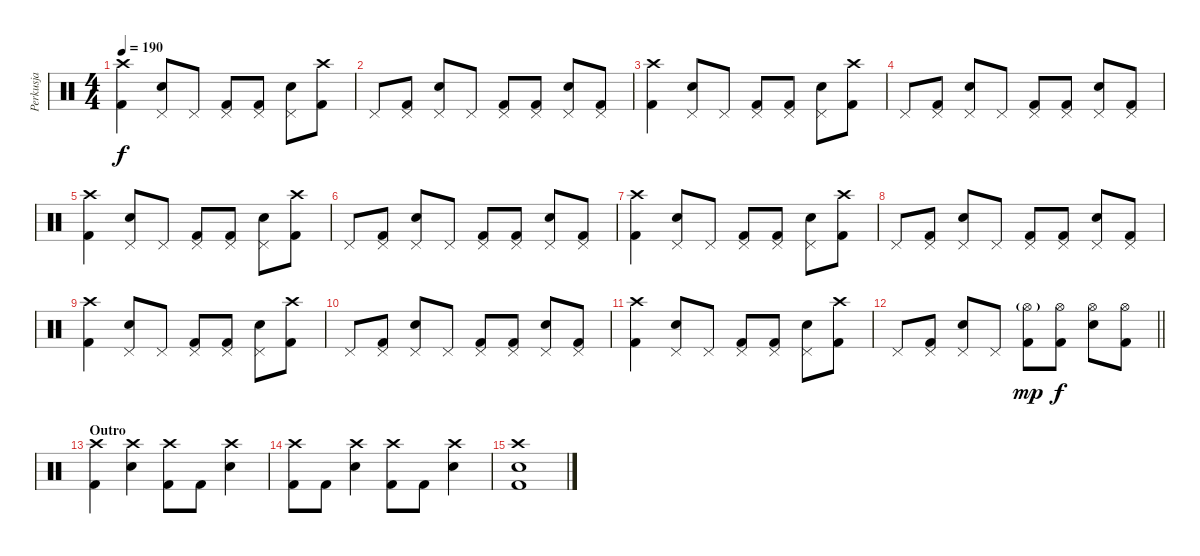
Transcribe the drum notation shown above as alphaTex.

\track ("Perkusja" "Perkusja") {instrument percussion}
\staff {score}
\articulation defaults
\ts (4 4)
\tempo 190
\clef neutral
\ks c
("Crash high (hit)" "Kick (hit) 2").4{dy f} ("Pedal Hi-Hat (hit)" "Electric Snare (hit)").8 "Pedal Hi-Hat (hit)".8 ("Pedal Hi-Hat (hit)" "Kick (hit) 2").8 ("Pedal Hi-Hat (hit)" "Kick (hit) 2").8 ("Pedal Hi-Hat (hit)" "Electric Snare (hit)").8 ("Crash high (hit)" "Kick (hit) 2").8 |
"Pedal Hi-Hat (hit)".8 ("Pedal Hi-Hat (hit)" "Kick (hit) 2").8 ("Pedal Hi-Hat (hit)" "Electric Snare (hit)").8 "Pedal Hi-Hat (hit)".8 ("Pedal Hi-Hat (hit)" "Kick (hit) 2").8 ("Pedal Hi-Hat (hit)" "Kick (hit) 2").8 ("Pedal Hi-Hat (hit)" "Electric Snare (hit)").8 ("Pedal Hi-Hat (hit)" "Kick (hit) 2").8 |
("Crash high (hit)" "Kick (hit) 2").4 ("Pedal Hi-Hat (hit)" "Electric Snare (hit)").8 "Pedal Hi-Hat (hit)".8 ("Pedal Hi-Hat (hit)" "Kick (hit) 2").8 ("Pedal Hi-Hat (hit)" "Kick (hit) 2").8 ("Pedal Hi-Hat (hit)" "Electric Snare (hit)").8 ("Crash high (hit)" "Kick (hit) 2").8 |
"Pedal Hi-Hat (hit)".8 ("Pedal Hi-Hat (hit)" "Kick (hit) 2").8 ("Pedal Hi-Hat (hit)" "Electric Snare (hit)").8 "Pedal Hi-Hat (hit)".8 ("Pedal Hi-Hat (hit)" "Kick (hit) 2").8 ("Pedal Hi-Hat (hit)" "Kick (hit) 2").8 ("Pedal Hi-Hat (hit)" "Electric Snare (hit)").8 ("Pedal Hi-Hat (hit)" "Kick (hit) 2").8 |
("Crash high (hit)" "Kick (hit) 2").4 ("Pedal Hi-Hat (hit)" "Electric Snare (hit)").8 "Pedal Hi-Hat (hit)".8 ("Pedal Hi-Hat (hit)" "Kick (hit) 2").8 ("Pedal Hi-Hat (hit)" "Kick (hit) 2").8 ("Pedal Hi-Hat (hit)" "Electric Snare (hit)").8 ("Crash high (hit)" "Kick (hit) 2").8 |
"Pedal Hi-Hat (hit)".8 ("Pedal Hi-Hat (hit)" "Kick (hit) 2").8 ("Pedal Hi-Hat (hit)" "Electric Snare (hit)").8 "Pedal Hi-Hat (hit)".8 ("Pedal Hi-Hat (hit)" "Kick (hit) 2").8 ("Pedal Hi-Hat (hit)" "Kick (hit) 2").8 ("Pedal Hi-Hat (hit)" "Electric Snare (hit)").8 ("Pedal Hi-Hat (hit)" "Kick (hit) 2").8 |
("Crash high (hit)" "Kick (hit) 2").4 ("Pedal Hi-Hat (hit)" "Electric Snare (hit)").8 "Pedal Hi-Hat (hit)".8 ("Pedal Hi-Hat (hit)" "Kick (hit) 2").8 ("Pedal Hi-Hat (hit)" "Kick (hit) 2").8 ("Pedal Hi-Hat (hit)" "Electric Snare (hit)").8 ("Crash high (hit)" "Kick (hit) 2").8 |
"Pedal Hi-Hat (hit)".8 ("Pedal Hi-Hat (hit)" "Kick (hit) 2").8 ("Pedal Hi-Hat (hit)" "Electric Snare (hit)").8 "Pedal Hi-Hat (hit)".8 ("Pedal Hi-Hat (hit)" "Kick (hit) 2").8 ("Pedal Hi-Hat (hit)" "Kick (hit) 2").8 ("Pedal Hi-Hat (hit)" "Electric Snare (hit)").8 ("Pedal Hi-Hat (hit)" "Kick (hit) 2").8 |
("Crash high (hit)" "Kick (hit) 2").4 ("Pedal Hi-Hat (hit)" "Electric Snare (hit)").8 "Pedal Hi-Hat (hit)".8 ("Pedal Hi-Hat (hit)" "Kick (hit) 2").8 ("Pedal Hi-Hat (hit)" "Kick (hit) 2").8 ("Pedal Hi-Hat (hit)" "Electric Snare (hit)").8 ("Crash high (hit)" "Kick (hit) 2").8 |
"Pedal Hi-Hat (hit)".8 ("Pedal Hi-Hat (hit)" "Kick (hit) 2").8 ("Pedal Hi-Hat (hit)" "Electric Snare (hit)").8 "Pedal Hi-Hat (hit)".8 ("Pedal Hi-Hat (hit)" "Kick (hit) 2").8 ("Pedal Hi-Hat (hit)" "Kick (hit) 2").8 ("Pedal Hi-Hat (hit)" "Electric Snare (hit)").8 ("Pedal Hi-Hat (hit)" "Kick (hit) 2").8 |
("Crash high (hit)" "Kick (hit) 2").4 ("Pedal Hi-Hat (hit)" "Electric Snare (hit)").8 "Pedal Hi-Hat (hit)".8 ("Pedal Hi-Hat (hit)" "Kick (hit) 2").8 ("Pedal Hi-Hat (hit)" "Kick (hit) 2").8 ("Pedal Hi-Hat (hit)" "Electric Snare (hit)").8 ("Crash high (hit)" "Kick (hit) 2").8 |
\barLineRight lightlight "Pedal Hi-Hat (hit)".8
("Pedal Hi-Hat (hit)" "Kick (hit) 2").8 ("Pedal Hi-Hat (hit)" "Electric Snare (hit)").8 "Pedal Hi-Hat (hit)".8 ("Hi-Hat (open)"{g} "Kick (hit) 2").8{dy mp} ("Hi-Hat (open)" "Kick (hit) 2").8{dy f} ("Hi-Hat (open)" "Electric Snare (hit)").8 ("Hi-Hat (open)" "Kick (hit) 2").8 |
\section ("" "Outro")
("Crash high (hit)" "Kick (hit) 2").4 ("Crash high (hit)" "Electric Snare (hit)").4 ("Crash high (hit)" "Kick (hit) 2").8 "Kick (hit) 2".8 ("Crash high (hit)" "Electric Snare (hit)").4 |
("Crash high (hit)" "Kick (hit) 2").8 "Kick (hit) 2".8 ("Crash high (hit)" "Electric Snare (hit)").4 ("Crash high (hit)" "Kick (hit) 2").8 "Kick (hit) 2".8 ("Crash high (hit)" "Electric Snare (hit)").4 |
("Crash high (hit)" "Electric Snare (hit)" "Kick (hit) 2").1
